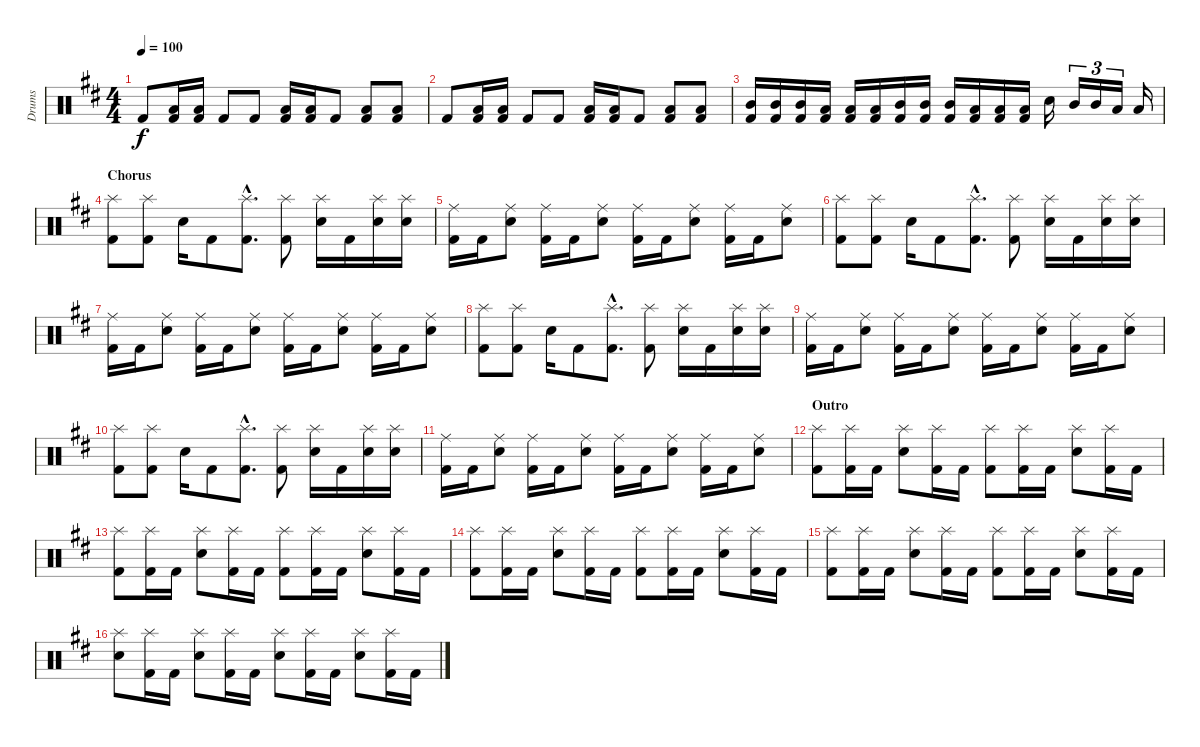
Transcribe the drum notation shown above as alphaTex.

\track ("Drums" "Drums") {instrument percussion}
\staff {score}
\articulation defaults
\ts (4 4)
\tempo 100
\clef neutral
\ks d "Kick (hit) 2".8{dy f}
("Kick (hit) 2" "Low Tom (hit)").16 ("Kick (hit) 2" "Low Tom (hit)").16 "Kick (hit) 2".8 "Kick (hit) 2".8 ("Kick (hit) 2" "Low Tom (hit)").16 ("Kick (hit) 2" "Low Tom (hit)").16 "Kick (hit) 2".8 ("Kick (hit) 2" "Low Tom (hit)").8 ("Kick (hit) 2" "Low Tom (hit)").8 |
"Kick (hit) 2".8 ("Kick (hit) 2" "Low Tom (hit)").16 ("Kick (hit) 2" "Low Tom (hit)").16 "Kick (hit) 2".8 "Kick (hit) 2".8 ("Kick (hit) 2" "Low Tom (hit)").16 ("Kick (hit) 2" "Low Tom (hit)").16 "Kick (hit) 2".8 ("Kick (hit) 2" "Low Tom (hit)").8 ("Kick (hit) 2" "Low Tom (hit)").8 |
("Kick (hit) 2" "Mid Tom (hit)").16 ("Kick (hit) 2" "Mid Tom (hit)").16 ("Kick (hit) 2" "Mid Tom (hit)").16 ("Kick (hit) 2" "Low Tom (hit)").16 ("Kick (hit) 2" "Low Tom (hit)").16 ("Kick (hit) 2" "Low Tom (hit)").16 ("Kick (hit) 2" "Mid Tom (hit)").16 ("Kick (hit) 2" "Mid Tom (hit)").16 ("Kick (hit) 2" "Mid Tom (hit)").16 ("Kick (hit) 2" "Low Tom (hit)").16 ("Kick (hit) 2" "Low Tom (hit)").16 ("Kick (hit) 2" "Low Tom (hit)").16 "Electric Snare (hit)".16 "Mid Tom (hit)".16{tu (3 2)} "Mid Tom (hit)".16{tu (3 2)} "Low Tom (hit)".16{tu (3 2)} "Low Tom (hit)".16 |
\section ("" "Chorus")
("Kick (hit) 2" "Splash (hit)").8 ("Kick (hit) 2" "Splash (hit)").8 "Electric Snare (hit)".16 "Kick (hit) 2".8 ("Kick (hit) 2"{hac} "Splash (hit)"{hac}).8{d} ("Kick (hit) 2" "Splash (hit)").8 ("Electric Snare (hit)" "Splash (hit)").16 "Kick (hit) 2".16 ("Electric Snare (hit)" "Splash (hit)").16 ("Electric Snare (hit)" "Splash (hit)").16 |
("Kick (hit) 2" "Ride (middle)").16 "Kick (hit) 2".16 ("Electric Snare (hit)" "Ride (middle)").8 ("Kick (hit) 2" "Ride (middle)").16 "Kick (hit) 2".16 ("Electric Snare (hit)" "Ride (middle)").8 ("Kick (hit) 2" "Ride (middle)").16 "Kick (hit) 2".16 ("Electric Snare (hit)" "Ride (middle)").8 ("Kick (hit) 2" "Ride (middle)").16 "Kick (hit) 2".16 ("Electric Snare (hit)" "Ride (middle)").8 |
("Kick (hit) 2" "Splash (hit)").8 ("Kick (hit) 2" "Splash (hit)").8 "Electric Snare (hit)".16 "Kick (hit) 2".8 ("Kick (hit) 2"{hac} "Splash (hit)"{hac}).8{d} ("Kick (hit) 2" "Splash (hit)").8 ("Electric Snare (hit)" "Splash (hit)").16 "Kick (hit) 2".16 ("Electric Snare (hit)" "Splash (hit)").16 ("Electric Snare (hit)" "Splash (hit)").16 |
("Kick (hit) 2" "Ride (middle)").16 "Kick (hit) 2".16 ("Electric Snare (hit)" "Ride (middle)").8 ("Kick (hit) 2" "Ride (middle)").16 "Kick (hit) 2".16 ("Electric Snare (hit)" "Ride (middle)").8 ("Kick (hit) 2" "Ride (middle)").16 "Kick (hit) 2".16 ("Electric Snare (hit)" "Ride (middle)").8 ("Kick (hit) 2" "Ride (middle)").16 "Kick (hit) 2".16 ("Electric Snare (hit)" "Ride (middle)").8 |
("Kick (hit) 2" "Splash (hit)").8 ("Kick (hit) 2" "Splash (hit)").8 "Electric Snare (hit)".16 "Kick (hit) 2".8 ("Kick (hit) 2"{hac} "Splash (hit)"{hac}).8{d} ("Kick (hit) 2" "Splash (hit)").8 ("Electric Snare (hit)" "Splash (hit)").16 "Kick (hit) 2".16 ("Electric Snare (hit)" "Splash (hit)").16 ("Electric Snare (hit)" "Splash (hit)").16 |
("Kick (hit) 2" "Ride (middle)").16 "Kick (hit) 2".16 ("Electric Snare (hit)" "Ride (middle)").8 ("Kick (hit) 2" "Ride (middle)").16 "Kick (hit) 2".16 ("Electric Snare (hit)" "Ride (middle)").8 ("Kick (hit) 2" "Ride (middle)").16 "Kick (hit) 2".16 ("Electric Snare (hit)" "Ride (middle)").8 ("Kick (hit) 2" "Ride (middle)").16 "Kick (hit) 2".16 ("Electric Snare (hit)" "Ride (middle)").8 |
("Kick (hit) 2" "Splash (hit)").8 ("Kick (hit) 2" "Splash (hit)").8 "Electric Snare (hit)".16 "Kick (hit) 2".8 ("Kick (hit) 2"{hac} "Splash (hit)"{hac}).8{d} ("Kick (hit) 2" "Splash (hit)").8 ("Electric Snare (hit)" "Splash (hit)").16 "Kick (hit) 2".16 ("Electric Snare (hit)" "Splash (hit)").16 ("Electric Snare (hit)" "Splash (hit)").16 |
("Kick (hit) 2" "Ride (middle)").16 "Kick (hit) 2".16 ("Electric Snare (hit)" "Ride (middle)").8 ("Kick (hit) 2" "Ride (middle)").16 "Kick (hit) 2".16 ("Electric Snare (hit)" "Ride (middle)").8 ("Kick (hit) 2" "Ride (middle)").16 "Kick (hit) 2".16 ("Electric Snare (hit)" "Ride (middle)").8 ("Kick (hit) 2" "Ride (middle)").16 "Kick (hit) 2".16 ("Electric Snare (hit)" "Ride (middle)").8 |
\section ("" "Outro")
("Kick (hit) 2" "Splash (hit)").8 ("Kick (hit) 2" "Splash (hit)").16 "Kick (hit) 2".16 ("Electric Snare (hit)" "Splash (hit)").8 ("Kick (hit) 2" "Splash (hit)").16 "Kick (hit) 2".16 ("Kick (hit) 2" "Splash (hit)").8 ("Kick (hit) 2" "Splash (hit)").16 "Kick (hit) 2".16 ("Electric Snare (hit)" "Splash (hit)").8 ("Kick (hit) 2" "Splash (hit)").16 "Kick (hit) 2".16 |
("Kick (hit) 2" "Splash (hit)").8 ("Kick (hit) 2" "Splash (hit)").16 "Kick (hit) 2".16 ("Electric Snare (hit)" "Splash (hit)").8 ("Kick (hit) 2" "Splash (hit)").16 "Kick (hit) 2".16 ("Kick (hit) 2" "Splash (hit)").8 ("Kick (hit) 2" "Splash (hit)").16 "Kick (hit) 2".16 ("Electric Snare (hit)" "Splash (hit)").8 ("Kick (hit) 2" "Splash (hit)").16 "Kick (hit) 2".16 |
("Kick (hit) 2" "Splash (hit)").8 ("Kick (hit) 2" "Splash (hit)").16 "Kick (hit) 2".16 ("Electric Snare (hit)" "Splash (hit)").8 ("Kick (hit) 2" "Splash (hit)").16 "Kick (hit) 2".16 ("Kick (hit) 2" "Splash (hit)").8 ("Kick (hit) 2" "Splash (hit)").16 "Kick (hit) 2".16 ("Electric Snare (hit)" "Splash (hit)").8 ("Kick (hit) 2" "Splash (hit)").16 "Kick (hit) 2".16 |
("Kick (hit) 2" "Splash (hit)").8 ("Kick (hit) 2" "Splash (hit)").16 "Kick (hit) 2".16 ("Electric Snare (hit)" "Splash (hit)").8 ("Kick (hit) 2" "Splash (hit)").16 "Kick (hit) 2".16 ("Kick (hit) 2" "Splash (hit)").8 ("Kick (hit) 2" "Splash (hit)").16 "Kick (hit) 2".16 ("Electric Snare (hit)" "Splash (hit)").8 ("Kick (hit) 2" "Splash (hit)").16 "Kick (hit) 2".16 |
("Electric Snare (hit)" "Splash (hit)").8 ("Kick (hit) 2" "Splash (hit)").16 "Kick (hit) 2".16 ("Electric Snare (hit)" "Splash (hit)").8 ("Kick (hit) 2" "Splash (hit)").16 "Kick (hit) 2".16 ("Electric Snare (hit)" "Splash (hit)").8 ("Kick (hit) 2" "Splash (hit)").16 "Kick (hit) 2".16 ("Electric Snare (hit)" "Splash (hit)").8 ("Kick (hit) 2" "Splash (hit)").16 "Kick (hit) 2".16
